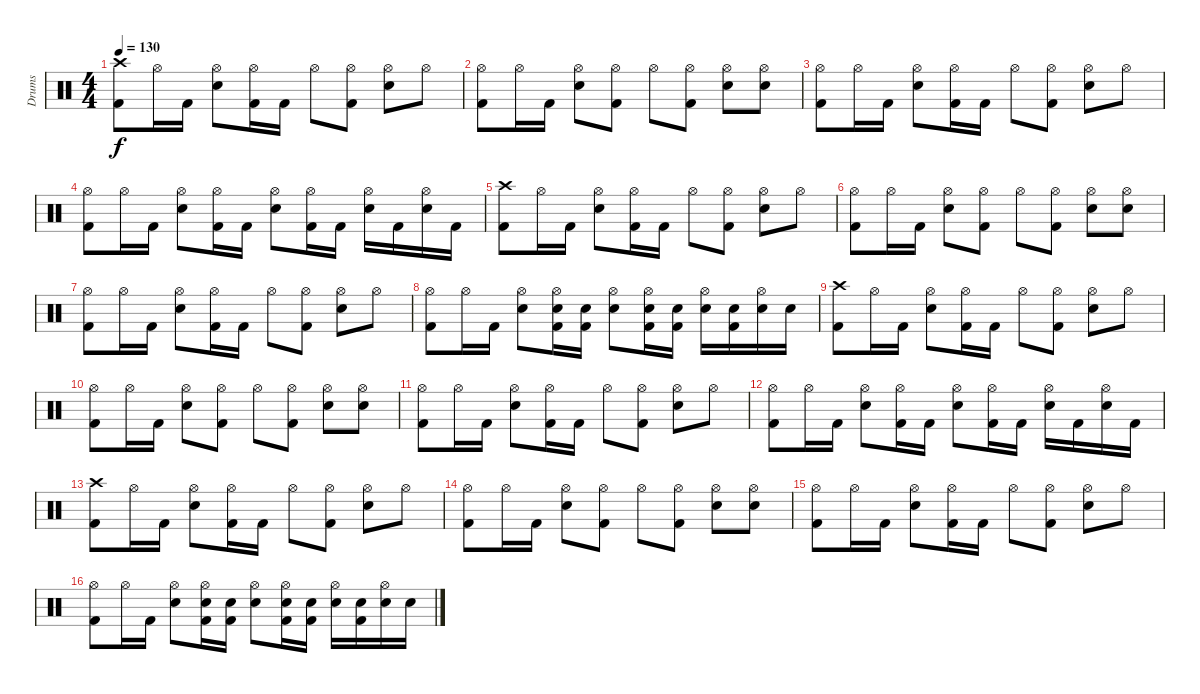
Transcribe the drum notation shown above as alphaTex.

\track ("Drums" "Drums") {instrument percussion}
\staff {score}
\articulation defaults
\ts (4 4)
\tempo 130
\clef neutral
\ks c
("Crash high (hit)" "Kick (hit) 2").8{dy f} "Hi-Hat (open)".16 "Kick (hit) 2".16 ("Hi-Hat (open)" "Electric Snare (hit)").8 ("Hi-Hat (open)" "Kick (hit) 2").16 "Kick (hit) 2".16 "Hi-Hat (open)".8 ("Hi-Hat (open)" "Kick (hit) 2").8 ("Hi-Hat (open)" "Electric Snare (hit)").8 "Hi-Hat (open)".8 |
("Hi-Hat (open)" "Kick (hit) 2").8 "Hi-Hat (open)".16 "Kick (hit) 2".16 ("Hi-Hat (open)" "Electric Snare (hit)").8 ("Hi-Hat (open)" "Kick (hit) 2").8 "Hi-Hat (open)".8 ("Hi-Hat (open)" "Kick (hit) 2").8 ("Hi-Hat (open)" "Electric Snare (hit)").8 ("Hi-Hat (open)" "Electric Snare (hit)").8 |
("Hi-Hat (open)" "Kick (hit) 2").8 "Hi-Hat (open)".16 "Kick (hit) 2".16 ("Hi-Hat (open)" "Electric Snare (hit)").8 ("Hi-Hat (open)" "Kick (hit) 2").16 "Kick (hit) 2".16 "Hi-Hat (open)".8 ("Hi-Hat (open)" "Kick (hit) 2").8 ("Hi-Hat (open)" "Electric Snare (hit)").8 "Hi-Hat (open)".8 |
("Hi-Hat (open)" "Kick (hit) 2").8 "Hi-Hat (open)".16 "Kick (hit) 2".16 ("Hi-Hat (open)" "Electric Snare (hit)").8 ("Hi-Hat (open)" "Kick (hit) 2").16 "Kick (hit) 2".16 ("Hi-Hat (open)" "Electric Snare (hit)").8 ("Hi-Hat (open)" "Kick (hit) 2").16 "Kick (hit) 2".16 ("Hi-Hat (open)" "Electric Snare (hit)").16 "Kick (hit) 2".16 ("Hi-Hat (open)" "Electric Snare (hit)").16 "Kick (hit) 2".16 |
("Crash high (hit)" "Kick (hit) 2").8 "Hi-Hat (open)".16 "Kick (hit) 2".16 ("Hi-Hat (open)" "Electric Snare (hit)").8 ("Hi-Hat (open)" "Kick (hit) 2").16 "Kick (hit) 2".16 "Hi-Hat (open)".8 ("Hi-Hat (open)" "Kick (hit) 2").8 ("Hi-Hat (open)" "Electric Snare (hit)").8 "Hi-Hat (open)".8 |
("Hi-Hat (open)" "Kick (hit) 2").8 "Hi-Hat (open)".16 "Kick (hit) 2".16 ("Hi-Hat (open)" "Electric Snare (hit)").8 ("Hi-Hat (open)" "Kick (hit) 2").8 "Hi-Hat (open)".8 ("Hi-Hat (open)" "Kick (hit) 2").8 ("Hi-Hat (open)" "Electric Snare (hit)").8 ("Hi-Hat (open)" "Electric Snare (hit)").8 |
("Hi-Hat (open)" "Kick (hit) 2").8 "Hi-Hat (open)".16 "Kick (hit) 2".16 ("Hi-Hat (open)" "Electric Snare (hit)").8 ("Hi-Hat (open)" "Kick (hit) 2").16 "Kick (hit) 2".16 "Hi-Hat (open)".8 ("Hi-Hat (open)" "Kick (hit) 2").8 ("Hi-Hat (open)" "Electric Snare (hit)").8 "Hi-Hat (open)".8 |
("Hi-Hat (open)" "Kick (hit) 2").8 "Hi-Hat (open)".16 "Kick (hit) 2".16 ("Hi-Hat (open)" "Electric Snare (hit)").8 ("Hi-Hat (open)" "Electric Snare (hit)" "Kick (hit) 2").16 ("Electric Snare (hit)" "Kick (hit) 2").16 ("Hi-Hat (open)" "Electric Snare (hit)").8 ("Hi-Hat (open)" "Electric Snare (hit)" "Kick (hit) 2").16 ("Electric Snare (hit)" "Kick (hit) 2").16 ("Hi-Hat (open)" "Electric Snare (hit)").16 ("Electric Snare (hit)" "Kick (hit) 2").16 ("Hi-Hat (open)" "Electric Snare (hit)").16 "Electric Snare (hit)".16 |
("Crash high (hit)" "Kick (hit) 2").8 "Hi-Hat (open)".16 "Kick (hit) 2".16 ("Hi-Hat (open)" "Electric Snare (hit)").8 ("Hi-Hat (open)" "Kick (hit) 2").16 "Kick (hit) 2".16 "Hi-Hat (open)".8 ("Hi-Hat (open)" "Kick (hit) 2").8 ("Hi-Hat (open)" "Electric Snare (hit)").8 "Hi-Hat (open)".8 |
("Hi-Hat (open)" "Kick (hit) 2").8 "Hi-Hat (open)".16 "Kick (hit) 2".16 ("Hi-Hat (open)" "Electric Snare (hit)").8 ("Hi-Hat (open)" "Kick (hit) 2").8 "Hi-Hat (open)".8 ("Hi-Hat (open)" "Kick (hit) 2").8 ("Hi-Hat (open)" "Electric Snare (hit)").8 ("Hi-Hat (open)" "Electric Snare (hit)").8 |
("Hi-Hat (open)" "Kick (hit) 2").8 "Hi-Hat (open)".16 "Kick (hit) 2".16 ("Hi-Hat (open)" "Electric Snare (hit)").8 ("Hi-Hat (open)" "Kick (hit) 2").16 "Kick (hit) 2".16 "Hi-Hat (open)".8 ("Hi-Hat (open)" "Kick (hit) 2").8 ("Hi-Hat (open)" "Electric Snare (hit)").8 "Hi-Hat (open)".8 |
("Hi-Hat (open)" "Kick (hit) 2").8 "Hi-Hat (open)".16 "Kick (hit) 2".16 ("Hi-Hat (open)" "Electric Snare (hit)").8 ("Hi-Hat (open)" "Kick (hit) 2").16 "Kick (hit) 2".16 ("Hi-Hat (open)" "Electric Snare (hit)").8 ("Hi-Hat (open)" "Kick (hit) 2").16 "Kick (hit) 2".16 ("Hi-Hat (open)" "Electric Snare (hit)").16 "Kick (hit) 2".16 ("Hi-Hat (open)" "Electric Snare (hit)").16 "Kick (hit) 2".16 |
("Crash high (hit)" "Kick (hit) 2").8 "Hi-Hat (open)".16 "Kick (hit) 2".16 ("Hi-Hat (open)" "Electric Snare (hit)").8 ("Hi-Hat (open)" "Kick (hit) 2").16 "Kick (hit) 2".16 "Hi-Hat (open)".8 ("Hi-Hat (open)" "Kick (hit) 2").8 ("Hi-Hat (open)" "Electric Snare (hit)").8 "Hi-Hat (open)".8 |
("Hi-Hat (open)" "Kick (hit) 2").8 "Hi-Hat (open)".16 "Kick (hit) 2".16 ("Hi-Hat (open)" "Electric Snare (hit)").8 ("Hi-Hat (open)" "Kick (hit) 2").8 "Hi-Hat (open)".8 ("Hi-Hat (open)" "Kick (hit) 2").8 ("Hi-Hat (open)" "Electric Snare (hit)").8 ("Hi-Hat (open)" "Electric Snare (hit)").8 |
("Hi-Hat (open)" "Kick (hit) 2").8 "Hi-Hat (open)".16 "Kick (hit) 2".16 ("Hi-Hat (open)" "Electric Snare (hit)").8 ("Hi-Hat (open)" "Kick (hit) 2").16 "Kick (hit) 2".16 "Hi-Hat (open)".8 ("Hi-Hat (open)" "Kick (hit) 2").8 ("Hi-Hat (open)" "Electric Snare (hit)").8 "Hi-Hat (open)".8 |
("Hi-Hat (open)" "Kick (hit) 2").8 "Hi-Hat (open)".16 "Kick (hit) 2".16 ("Hi-Hat (open)" "Electric Snare (hit)").8 ("Hi-Hat (open)" "Electric Snare (hit)" "Kick (hit) 2").16 ("Electric Snare (hit)" "Kick (hit) 2").16 ("Hi-Hat (open)" "Electric Snare (hit)").8 ("Hi-Hat (open)" "Electric Snare (hit)" "Kick (hit) 2").16 ("Electric Snare (hit)" "Kick (hit) 2").16 ("Hi-Hat (open)" "Electric Snare (hit)").16 ("Electric Snare (hit)" "Kick (hit) 2").16 ("Hi-Hat (open)" "Electric Snare (hit)").16 "Electric Snare (hit)".16
